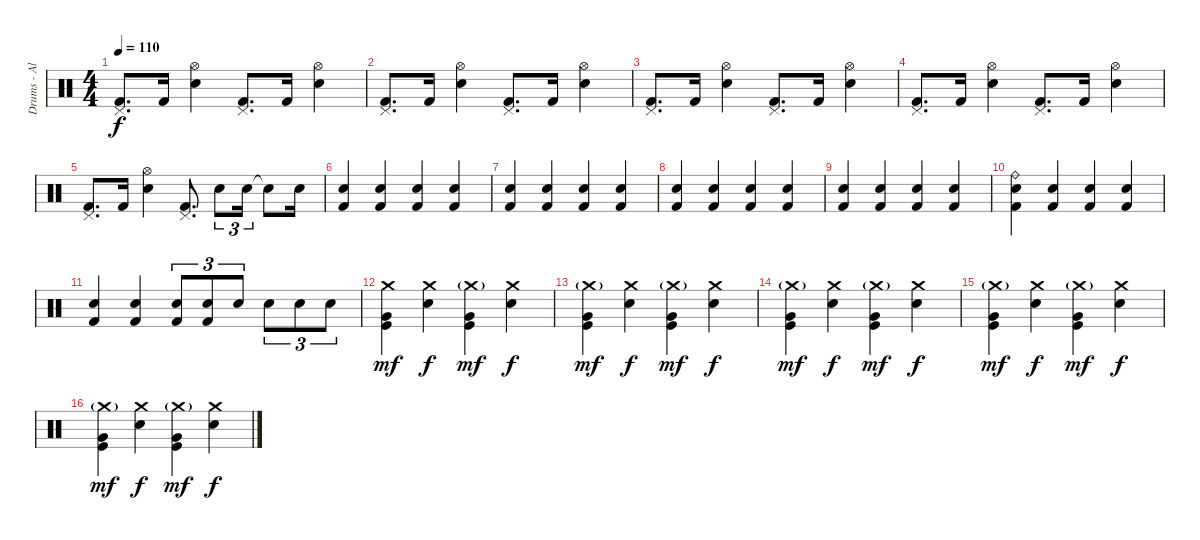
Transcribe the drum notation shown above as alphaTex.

\track ("Drums - Alan White" "Drums - Al") {instrument percussion}
\staff {score}
\articulation defaults
\ts (4 4)
\tempo 110
\clef neutral
\ks c
("Pedal Hi-Hat (hit)" "Kick (hit) 2").8{d dy f} "Kick (hit) 2".16 ("Hi-Hat (open)" "Snare (hit) 2").4 ("Pedal Hi-Hat (hit)" "Kick (hit) 2").8{d} "Kick (hit) 2".16 ("Hi-Hat (open)" "Snare (hit) 2").4 |
("Pedal Hi-Hat (hit)" "Kick (hit) 2").8{d} "Kick (hit) 2".16 ("Hi-Hat (open)" "Snare (hit) 2").4 ("Pedal Hi-Hat (hit)" "Kick (hit) 2").8{d} "Kick (hit) 2".16 ("Hi-Hat (open)" "Snare (hit) 2").4 |
("Pedal Hi-Hat (hit)" "Kick (hit) 2").8{d} "Kick (hit) 2".16 ("Hi-Hat (open)" "Snare (hit) 2").4 ("Pedal Hi-Hat (hit)" "Kick (hit) 2").8{d} "Kick (hit) 2".16 ("Hi-Hat (open)" "Snare (hit) 2").4 |
("Pedal Hi-Hat (hit)" "Kick (hit) 2").8{d} "Kick (hit) 2".16 ("Hi-Hat (open)" "Snare (hit) 2").4 ("Pedal Hi-Hat (hit)" "Kick (hit) 2").8{d} "Kick (hit) 2".16 ("Hi-Hat (open)" "Snare (hit) 2").4 |
("Pedal Hi-Hat (hit)" "Kick (hit) 2").8{d} "Kick (hit) 2".16 ("Hi-Hat (open)" "Snare (hit) 2").4 ("Pedal Hi-Hat (hit)" "Kick (hit) 2").8{d} "Snare (hit) 2".8{tu (3 2)} "Snare (hit) 2".16{tu (3 2)} "Snare (hit)"{t}.8 "Snare (hit) 2".16 |
("Snare (hit) 2" "Kick (hit) 2").4 ("Snare (hit) 2" "Kick (hit) 2").4 ("Snare (hit) 2" "Kick (hit) 2").4 ("Snare (hit) 2" "Kick (hit) 2").4 |
("Snare (hit) 2" "Kick (hit) 2").4 ("Snare (hit) 2" "Kick (hit) 2").4 ("Snare (hit) 2" "Kick (hit) 2").4 ("Snare (hit) 2" "Kick (hit) 2").4 |
("Snare (hit) 2" "Kick (hit) 2").4 ("Snare (hit) 2" "Kick (hit) 2").4 ("Snare (hit) 2" "Kick (hit) 2").4 ("Snare (hit) 2" "Kick (hit) 2").4 |
("Snare (hit) 2" "Kick (hit) 2").4 ("Snare (hit) 2" "Kick (hit) 2").4 ("Snare (hit) 2" "Kick (hit) 2").4 ("Snare (hit) 2" "Kick (hit) 2").4 |
("Ride (bell)" "Snare (hit) 2" "Kick (hit) 2").4 ("Snare (hit) 2" "Kick (hit) 2").4 ("Snare (hit) 2" "Kick (hit) 2").4 ("Snare (hit) 2" "Kick (hit) 2").4 |
("Snare (hit) 2" "Kick (hit) 2").4 ("Snare (hit) 2" "Kick (hit) 2").4 ("Snare (hit) 2" "Kick (hit) 2").8{tu (3 2)} ("Snare (hit) 2" "Kick (hit) 2").8{tu (3 2)} "Snare (hit) 2".8{tu (3 2)} "Snare (hit) 2".8{tu (3 2)} "Snare (hit) 2".8{tu (3 2)} "Snare (hit) 2".8{tu (3 2)} |
("Crash medium (hit)" "Kick (hit)" "Very Low Tom (hit)").4{dy mf} ("Crash medium (hit)" "Electric Snare (hit)").4{dy f} ("Crash medium (hit)"{g} "Kick (hit)" "Very Low Tom (hit)").4{dy mf} ("Crash medium (hit)" "Electric Snare (hit)").4{dy f} |
("Crash medium (hit)"{g} "Kick (hit)" "Very Low Tom (hit)").4{dy mf} ("Crash medium (hit)" "Electric Snare (hit)").4{dy f} ("Crash medium (hit)"{g} "Kick (hit)" "Very Low Tom (hit)").4{dy mf} ("Crash medium (hit)" "Electric Snare (hit)").4{dy f} |
("Crash medium (hit)"{g} "Kick (hit)" "Very Low Tom (hit)").4{dy mf} ("Crash medium (hit)" "Electric Snare (hit)").4{dy f} ("Crash medium (hit)"{g} "Kick (hit)" "Very Low Tom (hit)").4{dy mf} ("Crash medium (hit)" "Electric Snare (hit)").4{dy f} |
("Crash medium (hit)"{g} "Kick (hit)" "Very Low Tom (hit)").4{dy mf} ("Crash medium (hit)" "Electric Snare (hit)").4{dy f} ("Crash medium (hit)"{g} "Kick (hit)" "Very Low Tom (hit)").4{dy mf} ("Crash medium (hit)" "Electric Snare (hit)").4{dy f} |
("Crash medium (hit)"{g} "Kick (hit)" "Very Low Tom (hit)").4{dy mf} ("Crash medium (hit)" "Electric Snare (hit)").4{dy f} ("Crash medium (hit)"{g} "Kick (hit)" "Very Low Tom (hit)").4{dy mf} ("Crash medium (hit)" "Electric Snare (hit)").4{dy f}
